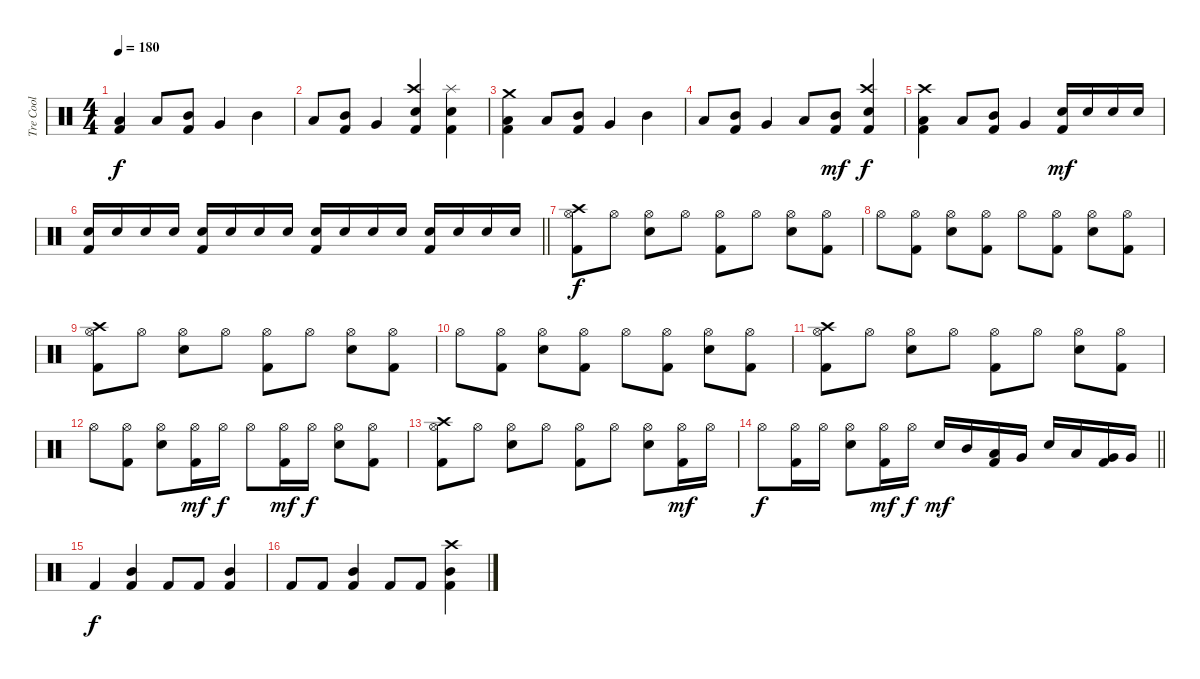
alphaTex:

\track ("Tre Cool" "Tre Cool") {instrument percussion}
\staff {score}
\articulation defaults
\ts (4 4)
\tempo 180
\clef neutral
\ks c
("Low Tom (hit)" "Kick (hit) 2").4{dy f} "Low Tom (hit)".8 ("Mid Tom (hit)" "Kick (hit) 2").8 "Very Low Tom (hit)".4 "Mid Tom (hit)".4 |
"Low Tom (hit)".8 ("Mid Tom (hit)" "Kick (hit) 2").8 "Very Low Tom (hit)".4 ("Crash high (hit)" "Electric Snare (hit)" "Kick (hit) 2").4 ("Splash (hit)" "Electric Snare (hit)" "Kick (hit) 2").4 |
("Crash medium (hit)" "Low Tom (hit)" "Kick (hit) 2").4 "Low Tom (hit)".8 ("Mid Tom (hit)" "Kick (hit) 2").8 "Very Low Tom (hit)".4 "Mid Tom (hit)".4 |
"Low Tom (hit)".8 ("Mid Tom (hit)" "Kick (hit) 2").8 "Very Low Tom (hit)".4 "Low Tom (hit)".8 ("Mid Tom (hit)" "Kick (hit) 2").8{dy mf} ("Crash high (hit)" "Electric Snare (hit)" "Kick (hit) 2").4{dy f} |
("Crash high (hit)" "Low Tom (hit)" "Kick (hit) 2").4 "Low Tom (hit)".8 ("Mid Tom (hit)" "Kick (hit) 2").8 "Very Low Tom (hit)".4 ("Electric Snare (hit)" "Kick (hit) 2").16{dy mf} "Electric Snare (hit)".16 "Electric Snare (hit)".16 "Electric Snare (hit)".16 |
\barLineRight lightlight
("Electric Snare (hit)" "Kick (hit) 2").16 "Electric Snare (hit)".16 "Electric Snare (hit)".16 "Electric Snare (hit)".16 ("Electric Snare (hit)" "Kick (hit) 2").16 "Electric Snare (hit)".16 "Electric Snare (hit)".16 "Electric Snare (hit)".16 ("Electric Snare (hit)" "Kick (hit) 2").16 "Electric Snare (hit)".16 "Electric Snare (hit)".16 "Electric Snare (hit)".16 ("Electric Snare (hit)" "Kick (hit) 2").16 "Electric Snare (hit)".16 "Electric Snare (hit)".16 "Electric Snare (hit)".16 |
("Crash high (hit)" "Hi-Hat (open)" "Kick (hit) 2").8{dy f} "Hi-Hat (open)".8 ("Hi-Hat (open)" "Electric Snare (hit)").8 "Hi-Hat (open)".8 ("Hi-Hat (open)" "Kick (hit) 2").8 "Hi-Hat (open)".8 ("Hi-Hat (open)" "Electric Snare (hit)").8 ("Hi-Hat (open)" "Kick (hit) 2").8 |
"Hi-Hat (open)".8 ("Hi-Hat (open)" "Kick (hit) 2").8 ("Hi-Hat (open)" "Electric Snare (hit)").8 ("Hi-Hat (open)" "Kick (hit) 2").8 "Hi-Hat (open)".8 ("Hi-Hat (open)" "Kick (hit) 2").8 ("Hi-Hat (open)" "Electric Snare (hit)").8 ("Hi-Hat (open)" "Kick (hit) 2").8 |
("Crash high (hit)" "Hi-Hat (open)" "Kick (hit) 2").8 "Hi-Hat (open)".8 ("Hi-Hat (open)" "Electric Snare (hit)").8 "Hi-Hat (open)".8 ("Hi-Hat (open)" "Kick (hit) 2").8 "Hi-Hat (open)".8 ("Hi-Hat (open)" "Electric Snare (hit)").8 ("Hi-Hat (open)" "Kick (hit) 2").8 |
"Hi-Hat (open)".8 ("Hi-Hat (open)" "Kick (hit) 2").8 ("Hi-Hat (open)" "Electric Snare (hit)").8 ("Hi-Hat (open)" "Kick (hit) 2").8 "Hi-Hat (open)".8 ("Hi-Hat (open)" "Kick (hit) 2").8 ("Hi-Hat (open)" "Electric Snare (hit)").8 ("Hi-Hat (open)" "Kick (hit) 2").8 |
("Crash high (hit)" "Hi-Hat (open)" "Kick (hit) 2").8 "Hi-Hat (open)".8 ("Hi-Hat (open)" "Electric Snare (hit)").8 "Hi-Hat (open)".8 ("Hi-Hat (open)" "Kick (hit) 2").8 "Hi-Hat (open)".8 ("Hi-Hat (open)" "Electric Snare (hit)").8 ("Hi-Hat (open)" "Kick (hit) 2").8 |
"Hi-Hat (open)".8 ("Hi-Hat (open)" "Kick (hit) 2").8 ("Hi-Hat (open)" "Electric Snare (hit)").8 ("Hi-Hat (open)" "Kick (hit) 2").16{dy mf} "Hi-Hat (open)".16{dy f} "Hi-Hat (open)".8 ("Hi-Hat (open)" "Kick (hit) 2").16{dy mf} "Hi-Hat (open)".16{dy f} ("Hi-Hat (open)" "Electric Snare (hit)").8 ("Hi-Hat (open)" "Kick (hit) 2").8 |
("Crash high (hit)" "Hi-Hat (open)" "Kick (hit) 2").8 "Hi-Hat (open)".8 ("Hi-Hat (open)" "Electric Snare (hit)").8 "Hi-Hat (open)".8 ("Hi-Hat (open)" "Kick (hit) 2").8 "Hi-Hat (open)".8 ("Hi-Hat (open)" "Electric Snare (hit)").8 ("Hi-Hat (open)" "Kick (hit) 2").16{dy mf} "Hi-Hat (open)".16 |
\barLineRight lightlight "Hi-Hat (open)".8{dy f}
("Hi-Hat (open)" "Kick (hit) 2").16 "Hi-Hat (open)".16 ("Hi-Hat (open)" "Electric Snare (hit)").8 ("Hi-Hat (open)" "Kick (hit) 2").16{dy mf} "Hi-Hat (open)".16{dy f} "Electric Snare (hit)".16{dy mf} "Mid Tom (hit)".16 ("Low Tom (hit)" "Kick (hit) 2").16 "Very Low Tom (hit)".16 "Electric Snare (hit)".16 "Low Tom (hit)".16 ("Very Low Tom (hit)" "Kick (hit) 2").16 "Very Low Tom (hit)".16 |
"Kick (hit) 2".4{dy f} ("Mid Tom (hit)" "Kick (hit) 2").4 "Kick (hit) 2".8 "Kick (hit) 2".8 ("Mid Tom (hit)" "Kick (hit) 2").4 |
"Kick (hit) 2".8 "Kick (hit) 2".8 ("Mid Tom (hit)" "Kick (hit) 2").4 "Kick (hit) 2".8 "Kick (hit) 2".8 ("Crash high (hit)" "Mid Tom (hit)" "Kick (hit) 2").4
